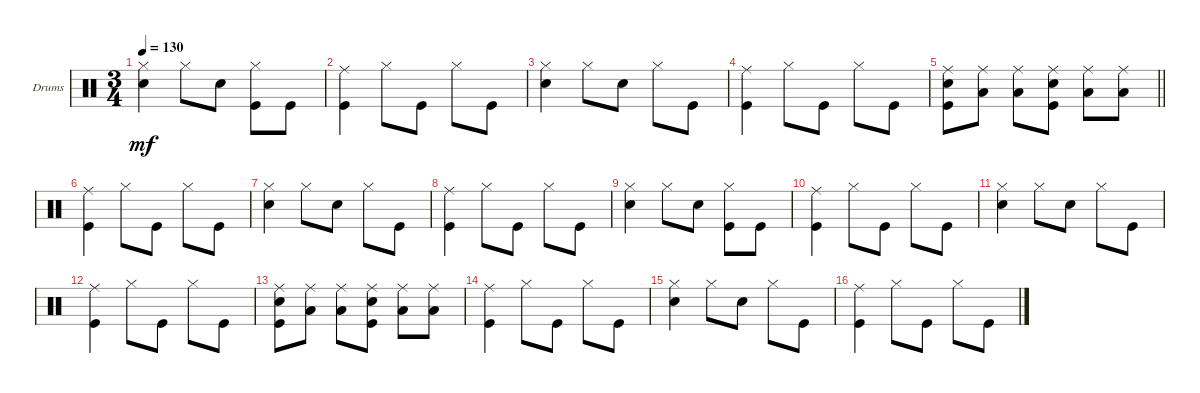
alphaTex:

\defaultSystemsLayout 4
\bracketExtendMode groupsimilarinstruments
\firstSystemTrackNameOrientation horizontal
\otherSystemsTrackNameOrientation horizontal
\chordDiagramsInScore
\track ("Drumkit" "Drums") {instrument percussion}
\staff {score}
\articulation defaults
\ts (3 4)
\tempo 130
\clef neutral
\ks c
("Hi-Hat (closed)" "Snare (hit) 2").4{dy mf} "Hi-Hat (closed)".8 "Snare (hit) 2".8 ("Kick (hit)" "Hi-Hat (closed)").8 "Kick (hit)".8 |
("Kick (hit)" "Ride (middle)").4 "Hi-Hat (closed)".8 "Kick (hit)".8 "Hi-Hat (closed)".8 "Kick (hit)".8 |
("Hi-Hat (closed)" "Snare (hit) 2").4 "Hi-Hat (closed)".8 "Snare (hit) 2".8 "Hi-Hat (closed)".8 "Kick (hit)".8 |
("Kick (hit)" "Ride (middle)").4 "Hi-Hat (closed)".8 "Kick (hit)".8 "Hi-Hat (closed)".8 "Kick (hit)".8 |
\barLineRight lightlight
("Snare (hit) 2" "Kick (hit)" "Ride (middle)").8 ("Ride (middle)" "Low Tom (hit)").8 ("Ride (middle)" "Low Tom (hit)").8 ("Kick (hit)" "Snare (hit) 2" "Ride (middle)").8 ("Ride (middle)" "Low Tom (hit)").8 ("Ride (middle)" "Low Tom (hit)").8 |
("Kick (hit)" "Ride (middle)").4 "Hi-Hat (closed)".8 "Kick (hit)".8 "Hi-Hat (closed)".8 "Kick (hit)".8 |
("Hi-Hat (closed)" "Snare (hit) 2").4 "Hi-Hat (closed)".8 "Snare (hit) 2".8 "Hi-Hat (closed)".8 "Kick (hit)".8 |
("Kick (hit)" "Ride (middle)").4 "Hi-Hat (closed)".8 "Kick (hit)".8 "Hi-Hat (closed)".8 "Kick (hit)".8 |
("Hi-Hat (closed)" "Snare (hit) 2").4 "Hi-Hat (closed)".8 "Snare (hit) 2".8 ("Kick (hit)" "Hi-Hat (closed)").8 "Kick (hit)".8 |
("Kick (hit)" "Ride (middle)").4 "Hi-Hat (closed)".8 "Kick (hit)".8 "Hi-Hat (closed)".8 "Kick (hit)".8 |
("Hi-Hat (closed)" "Snare (hit) 2").4 "Hi-Hat (closed)".8 "Snare (hit) 2".8 "Hi-Hat (closed)".8 "Kick (hit)".8 |
("Kick (hit)" "Ride (middle)").4 "Hi-Hat (closed)".8 "Kick (hit)".8 "Hi-Hat (closed)".8 "Kick (hit)".8 |
("Snare (hit) 2" "Kick (hit)" "Ride (middle)").8 ("Ride (middle)" "Low Tom (hit)").8 ("Ride (middle)" "Low Tom (hit)").8 ("Kick (hit)" "Snare (hit) 2" "Ride (middle)").8 ("Ride (middle)" "Low Tom (hit)").8 ("Ride (middle)" "Low Tom (hit)").8 |
("Kick (hit)" "Ride (middle)").4 "Hi-Hat (closed)".8 "Kick (hit)".8 "Hi-Hat (closed)".8 "Kick (hit)".8 |
("Hi-Hat (closed)" "Snare (hit) 2").4 "Hi-Hat (closed)".8 "Snare (hit) 2".8 "Hi-Hat (closed)".8 "Kick (hit)".8 |
("Kick (hit)" "Ride (middle)").4 "Hi-Hat (closed)".8 "Kick (hit)".8 "Hi-Hat (closed)".8 "Kick (hit)".8
